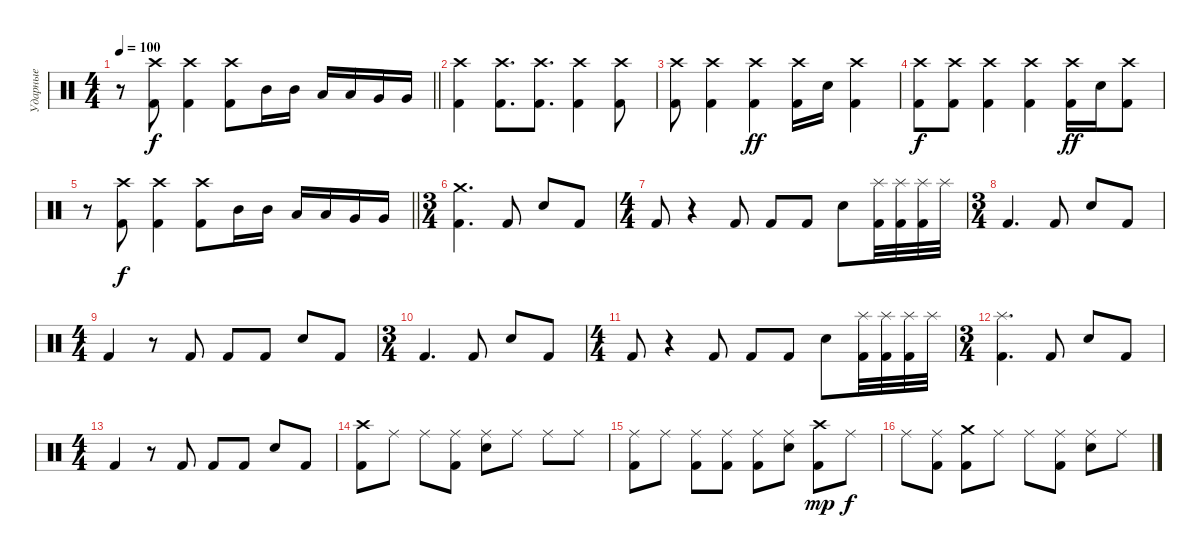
\track ("Ударные" "Ударные") {instrument percussion}
\staff {score}
\articulation defaults
\ts (4 4)
\tempo 100
\clef neutral
\barLineRight lightlight
\ks c
r.8{dy ff} ("Crash high (hit)" "Kick (hit) 2").8{dy f} ("Crash high (hit)" "Kick (hit) 2").4 ("Crash high (hit)" "Kick (hit) 2").8 "Mid Tom (hit)".16 "Mid Tom (hit)".16 "Low Tom (hit)".16 "Low Tom (hit)".16 "Very Low Tom (hit)".16 "Very Low Tom (hit)".16 |
("Crash high (hit)" "Kick (hit) 2").4 ("Crash high (hit)" "Kick (hit) 2").8{d} ("Crash high (hit)" "Kick (hit) 2").8{d} ("Crash high (hit)" "Kick (hit) 2").4 ("Crash high (hit)" "Kick (hit) 2").8 |
("Crash high (hit)" "Kick (hit) 2").8 ("Crash high (hit)" "Kick (hit) 2").4 ("Crash high (hit)" "Kick (hit) 2").4{dy ff} ("Crash high (hit)" "Kick (hit) 2").16 "Snare (hit) 2".16 ("Crash high (hit)" "Kick (hit) 2").4 |
("Crash high (hit)" "Kick (hit) 2").8{dy f} ("Crash high (hit)" "Kick (hit) 2").8 ("Crash high (hit)" "Kick (hit) 2").4 ("Crash high (hit)" "Kick (hit) 2").4 ("Crash high (hit)" "Kick (hit) 2").16{dy ff} "Snare (hit) 2".16 ("Crash high (hit)" "Kick (hit) 2").8 |
\barLineRight lightlight
r.8 ("Crash high (hit)" "Kick (hit) 2").8{dy f} ("Crash high (hit)" "Kick (hit) 2").4 ("Crash high (hit)" "Kick (hit) 2").8 "Mid Tom (hit)".16 "Mid Tom (hit)".16 "Low Tom (hit)".16 "Low Tom (hit)".16 "Very Low Tom (hit)".16 "Very Low Tom (hit)".16 |
\ts (3 4)
("Crash medium (hit)" "Kick (hit) 2").4{d} "Kick (hit) 2".8 "Electric Snare (hit)".8 "Kick (hit) 2".8 |
\ts (4 4)
"Kick (hit) 2".8 r.4 "Kick (hit) 2".8 "Kick (hit) 2".8 "Kick (hit) 2".8 "Electric Snare (hit)".8 ("Splash (hit)" "Kick (hit) 2").32 ("Splash (hit)" "Kick (hit) 2").32 ("Splash (hit)" "Kick (hit) 2").32 "Splash (hit)".32 |
\ts (3 4)
"Kick (hit) 2".4{d} "Kick (hit) 2".8 "Electric Snare (hit)".8 "Kick (hit) 2".8 |
\ts (4 4)
"Kick (hit) 2".4 r.8 "Kick (hit) 2".8 "Kick (hit) 2".8 "Kick (hit) 2".8 "Electric Snare (hit)".8 "Kick (hit) 2".8 |
\ts (3 4)
"Kick (hit) 2".4{d} "Kick (hit) 2".8 "Electric Snare (hit)".8 "Kick (hit) 2".8 |
\ts (4 4)
"Kick (hit) 2".8 r.4 "Kick (hit) 2".8 "Kick (hit) 2".8 "Kick (hit) 2".8 "Electric Snare (hit)".8 ("Splash (hit)" "Kick (hit) 2").32 ("Splash (hit)" "Kick (hit) 2").32 ("Splash (hit)" "Kick (hit) 2").32 "Splash (hit)".32 |
\ts (3 4)
("Splash (hit)" "Kick (hit) 2").4{d} "Kick (hit) 2".8 "Electric Snare (hit)".8 "Kick (hit) 2".8 |
\ts (4 4)
"Kick (hit) 2".4 r.8 "Kick (hit) 2".8 "Kick (hit) 2".8 "Kick (hit) 2".8 "Electric Snare (hit)".8 "Kick (hit) 2".8 |
("Crash high (hit)" "Kick (hit) 2").8 "Ride (middle)".8 "Ride (middle)".8 ("Ride (middle)" "Kick (hit) 2").8 ("Ride (middle)" "Electric Snare (hit)").8 "Ride (middle)".8 "Ride (middle)".8 "Ride (middle)".8 |
("Ride (middle)" "Kick (hit) 2").8 "Ride (middle)".8 ("Ride (middle)" "Kick (hit) 2").8 ("Ride (middle)" "Kick (hit) 2").8 ("Ride (middle)" "Kick (hit) 2").8 ("Ride (middle)" "Electric Snare (hit)").8 ("Crash high (hit)" "Kick (hit) 2").8{dy mp} "Ride (middle)".8{dy f} |
"Ride (middle)".8 ("Ride (middle)" "Kick (hit) 2").8 ("Crash medium (hit)" "Kick (hit) 2").8 "Ride (middle)".8 "Ride (middle)".8 ("Ride (middle)" "Kick (hit) 2").8 ("Ride (middle)" "Electric Snare (hit)").8 "Ride (middle)".8
